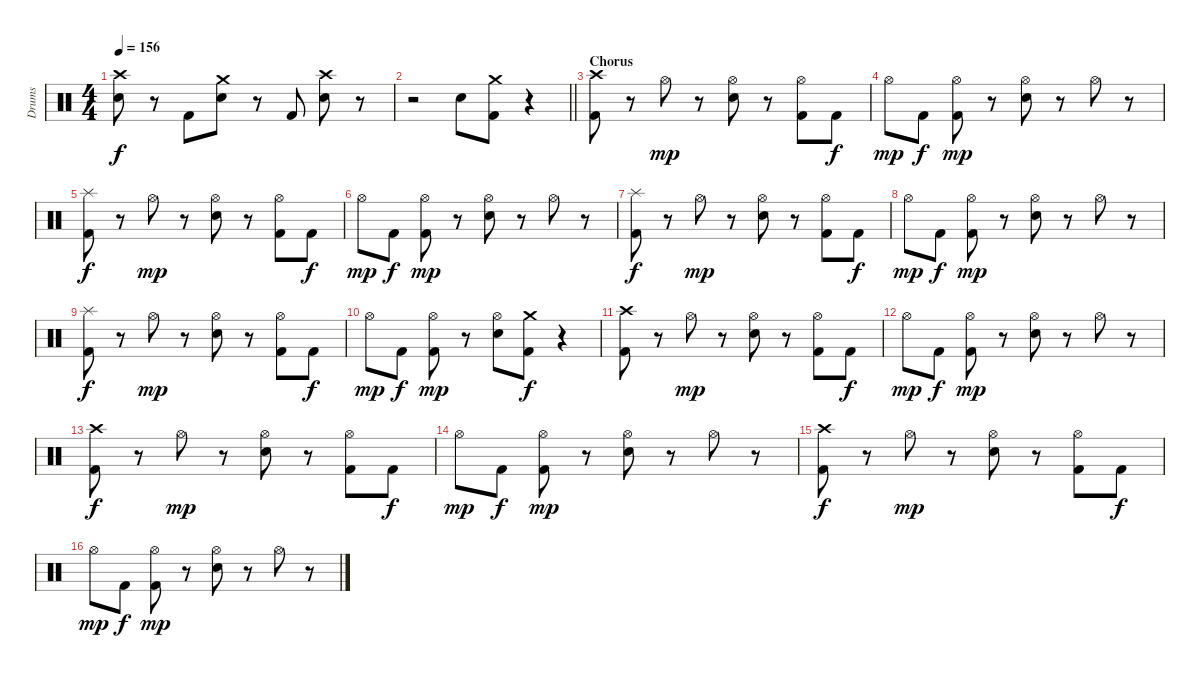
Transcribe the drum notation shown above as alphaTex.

\track ("Drums" "Drums") {instrument percussion}
\staff {score}
\articulation defaults
\ts (4 4)
\tempo 156
\clef neutral
\ks c
("Snare (hit) 2" "Crash high (hit)").8{dy f} r.8 "Kick (hit) 2".8 ("Snare (hit) 2" "Crash medium (hit)").8 r.8 "Kick (hit) 2".8 ("Snare (hit) 2" "Crash high (hit)").8 r.8 |
\barLineRight lightlight
r.2 "Snare (hit) 2".8 ("Kick (hit) 2" "Crash medium (hit)").8 r.4 |
\section ("" "Chorus")
("Kick (hit) 2" "Crash high (hit)").8 r.8 "Hi-Hat (open)".8{dy mp} r.8 ("Snare (hit) 2" "Hi-Hat (open)").8 r.8 ("Kick (hit) 2" "Hi-Hat (open)").8 "Kick (hit) 2".8{dy f} |
"Hi-Hat (open)".8{dy mp} "Kick (hit) 2".8{dy f} ("Kick (hit) 2" "Hi-Hat (open)").8{dy mp} r.8 ("Snare (hit) 2" "Hi-Hat (open)").8 r.8 "Hi-Hat (open)".8 r.8 |
("Kick (hit) 2" "Splash (hit)").8{dy f} r.8 "Hi-Hat (open)".8{dy mp} r.8 ("Snare (hit) 2" "Hi-Hat (open)").8 r.8 ("Kick (hit) 2" "Hi-Hat (open)").8 "Kick (hit) 2".8{dy f} |
"Hi-Hat (open)".8{dy mp} "Kick (hit) 2".8{dy f} ("Kick (hit) 2" "Hi-Hat (open)").8{dy mp} r.8 ("Snare (hit) 2" "Hi-Hat (open)").8 r.8 "Hi-Hat (open)".8 r.8 |
("Kick (hit) 2" "Splash (hit)").8{dy f} r.8 "Hi-Hat (open)".8{dy mp} r.8 ("Snare (hit) 2" "Hi-Hat (open)").8 r.8 ("Kick (hit) 2" "Hi-Hat (open)").8 "Kick (hit) 2".8{dy f} |
"Hi-Hat (open)".8{dy mp} "Kick (hit) 2".8{dy f} ("Kick (hit) 2" "Hi-Hat (open)").8{dy mp} r.8 ("Snare (hit) 2" "Hi-Hat (open)").8 r.8 "Hi-Hat (open)".8 r.8 |
("Kick (hit) 2" "Splash (hit)").8{dy f} r.8 "Hi-Hat (open)".8{dy mp} r.8 ("Snare (hit) 2" "Hi-Hat (open)").8 r.8 ("Kick (hit) 2" "Hi-Hat (open)").8 "Kick (hit) 2".8{dy f} |
"Hi-Hat (open)".8{dy mp} "Kick (hit) 2".8{dy f} ("Kick (hit) 2" "Hi-Hat (open)").8{dy mp} r.8 ("Snare (hit) 2" "Hi-Hat (open)").8 ("Kick (hit) 2" "Crash medium (hit)").8{dy f} r.4 |
("Kick (hit) 2" "Crash high (hit)").8 r.8 "Hi-Hat (open)".8{dy mp} r.8 ("Snare (hit) 2" "Hi-Hat (open)").8 r.8 ("Kick (hit) 2" "Hi-Hat (open)").8 "Kick (hit) 2".8{dy f} |
"Hi-Hat (open)".8{dy mp} "Kick (hit) 2".8{dy f} ("Kick (hit) 2" "Hi-Hat (open)").8{dy mp} r.8 ("Snare (hit) 2" "Hi-Hat (open)").8 r.8 "Hi-Hat (open)".8 r.8 |
("Kick (hit) 2" "Crash high (hit)").8{dy f} r.8 "Hi-Hat (open)".8{dy mp} r.8 ("Snare (hit) 2" "Hi-Hat (open)").8 r.8 ("Kick (hit) 2" "Hi-Hat (open)").8 "Kick (hit) 2".8{dy f} |
"Hi-Hat (open)".8{dy mp} "Kick (hit) 2".8{dy f} ("Kick (hit) 2" "Hi-Hat (open)").8{dy mp} r.8 ("Snare (hit) 2" "Hi-Hat (open)").8 r.8 "Hi-Hat (open)".8 r.8 |
("Kick (hit) 2" "Crash high (hit)").8{dy f} r.8 "Hi-Hat (open)".8{dy mp} r.8 ("Snare (hit) 2" "Hi-Hat (open)").8 r.8 ("Kick (hit) 2" "Hi-Hat (open)").8 "Kick (hit) 2".8{dy f} |
"Hi-Hat (open)".8{dy mp} "Kick (hit) 2".8{dy f} ("Kick (hit) 2" "Hi-Hat (open)").8{dy mp} r.8 ("Snare (hit) 2" "Hi-Hat (open)").8 r.8 "Hi-Hat (open)".8 r.8
